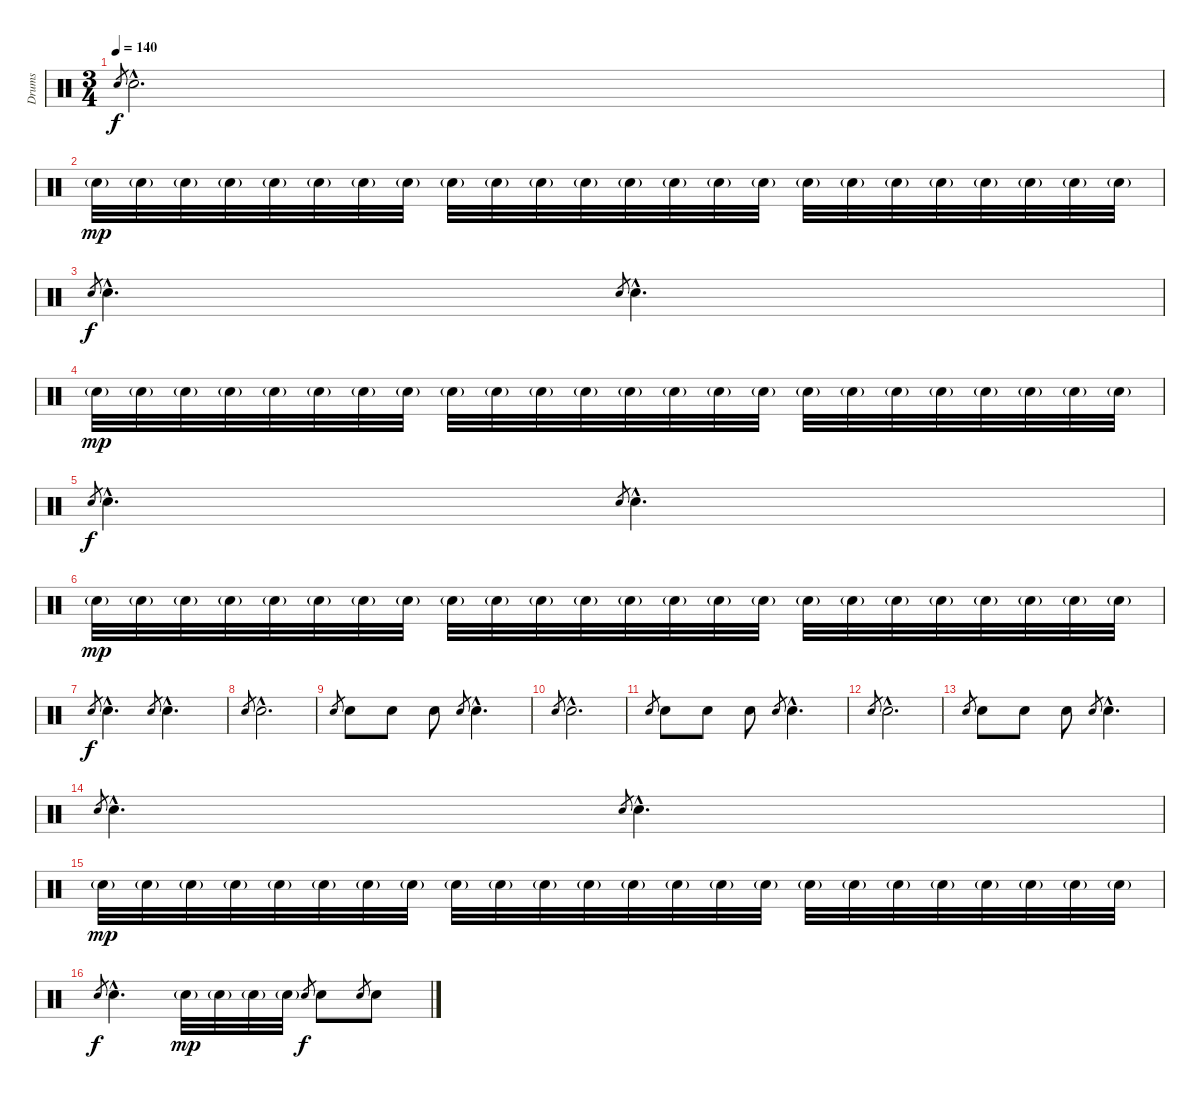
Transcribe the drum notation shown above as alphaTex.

\track ("Drums" "Drums") {instrument percussion}
\staff {score}
\articulation defaults
\ts (3 4)
\tempo 140
\clef neutral
\ks c "Snare (hit) 2".8{gr dy f} "Snare (hit) 2"{hac}.2{d}
|
"Snare (hit) 2"{g}.32{dy mp} "Snare (hit) 2"{g}.32 "Snare (hit) 2"{g}.32 "Snare (hit) 2"{g}.32 "Snare (hit) 2"{g}.32 "Snare (hit) 2"{g}.32 "Snare (hit) 2"{g}.32 "Snare (hit) 2"{g}.32 "Snare (hit) 2"{g}.32 "Snare (hit) 2"{g}.32 "Snare (hit) 2"{g}.32 "Snare (hit) 2"{g}.32 "Snare (hit) 2"{g}.32 "Snare (hit) 2"{g}.32 "Snare (hit) 2"{g}.32 "Snare (hit) 2"{g}.32 "Snare (hit) 2"{g}.32 "Snare (hit) 2"{g}.32 "Snare (hit) 2"{g}.32 "Snare (hit) 2"{g}.32 "Snare (hit) 2"{g}.32 "Snare (hit) 2"{g}.32 "Snare (hit) 2"{g}.32 "Snare (hit) 2"{g}.32 |
"Snare (hit) 2".8{gr dy f} "Snare (hit) 2"{hac}.4{d} "Snare (hit) 2".8{gr} "Snare (hit) 2"{hac}.4{d} |
"Snare (hit) 2"{g}.32{dy mp} "Snare (hit) 2"{g}.32 "Snare (hit) 2"{g}.32 "Snare (hit) 2"{g}.32 "Snare (hit) 2"{g}.32 "Snare (hit) 2"{g}.32 "Snare (hit) 2"{g}.32 "Snare (hit) 2"{g}.32 "Snare (hit) 2"{g}.32 "Snare (hit) 2"{g}.32 "Snare (hit) 2"{g}.32 "Snare (hit) 2"{g}.32 "Snare (hit) 2"{g}.32 "Snare (hit) 2"{g}.32 "Snare (hit) 2"{g}.32 "Snare (hit) 2"{g}.32 "Snare (hit) 2"{g}.32 "Snare (hit) 2"{g}.32 "Snare (hit) 2"{g}.32 "Snare (hit) 2"{g}.32 "Snare (hit) 2"{g}.32 "Snare (hit) 2"{g}.32 "Snare (hit) 2"{g}.32 "Snare (hit) 2"{g}.32 |
"Snare (hit) 2".8{gr dy f} "Snare (hit) 2"{hac}.4{d} "Snare (hit) 2".8{gr} "Snare (hit) 2"{hac}.4{d} |
"Snare (hit) 2"{g}.32{dy mp} "Snare (hit) 2"{g}.32 "Snare (hit) 2"{g}.32 "Snare (hit) 2"{g}.32 "Snare (hit) 2"{g}.32 "Snare (hit) 2"{g}.32 "Snare (hit) 2"{g}.32 "Snare (hit) 2"{g}.32 "Snare (hit) 2"{g}.32 "Snare (hit) 2"{g}.32 "Snare (hit) 2"{g}.32 "Snare (hit) 2"{g}.32 "Snare (hit) 2"{g}.32 "Snare (hit) 2"{g}.32 "Snare (hit) 2"{g}.32 "Snare (hit) 2"{g}.32 "Snare (hit) 2"{g}.32 "Snare (hit) 2"{g}.32 "Snare (hit) 2"{g}.32 "Snare (hit) 2"{g}.32 "Snare (hit) 2"{g}.32 "Snare (hit) 2"{g}.32 "Snare (hit) 2"{g}.32 "Snare (hit) 2"{g}.32 |
"Snare (hit) 2".8{gr dy f} "Snare (hit) 2"{hac}.4{d} "Snare (hit) 2".8{gr} "Snare (hit) 2"{hac}.4{d} |
"Snare (hit) 2".8{gr} "Snare (hit) 2"{hac}.2{d} |
"Snare (hit) 2".8{gr} "Snare (hit) 2".8 "Snare (hit) 2".8 "Snare (hit) 2".8 "Snare (hit) 2".8{gr} "Snare (hit) 2"{hac}.4{d} |
"Snare (hit) 2".8{gr} "Snare (hit) 2"{hac}.2{d} |
"Snare (hit) 2".8{gr} "Snare (hit) 2".8 "Snare (hit) 2".8 "Snare (hit) 2".8 "Snare (hit) 2".8{gr} "Snare (hit) 2"{hac}.4{d} |
"Snare (hit) 2".8{gr} "Snare (hit) 2"{hac}.2{d} |
"Snare (hit) 2".8{gr} "Snare (hit) 2".8 "Snare (hit) 2".8 "Snare (hit) 2".8 "Snare (hit) 2".8{gr} "Snare (hit) 2"{hac}.4{d} |
"Snare (hit) 2".8{gr} "Snare (hit) 2"{hac}.4{d} "Snare (hit) 2".8{gr} "Snare (hit) 2"{hac}.4{d} |
"Snare (hit) 2"{g}.32{dy mp} "Snare (hit) 2"{g}.32 "Snare (hit) 2"{g}.32 "Snare (hit) 2"{g}.32 "Snare (hit) 2"{g}.32 "Snare (hit) 2"{g}.32 "Snare (hit) 2"{g}.32 "Snare (hit) 2"{g}.32 "Snare (hit) 2"{g}.32 "Snare (hit) 2"{g}.32 "Snare (hit) 2"{g}.32 "Snare (hit) 2"{g}.32 "Snare (hit) 2"{g}.32 "Snare (hit) 2"{g}.32 "Snare (hit) 2"{g}.32 "Snare (hit) 2"{g}.32 "Snare (hit) 2"{g}.32 "Snare (hit) 2"{g}.32 "Snare (hit) 2"{g}.32 "Snare (hit) 2"{g}.32 "Snare (hit) 2"{g}.32 "Snare (hit) 2"{g}.32 "Snare (hit) 2"{g}.32 "Snare (hit) 2"{g}.32 |
"Snare (hit) 2".8{gr dy f} "Snare (hit) 2"{hac}.4{d} "Snare (hit) 2"{g}.32{dy mp} "Snare (hit) 2"{g}.32 "Snare (hit) 2"{g}.32 "Snare (hit) 2"{g}.32 "Snare (hit) 2".8{gr dy f} "Snare (hit) 2".8 "Snare (hit) 2".8{gr} "Snare (hit) 2".8
